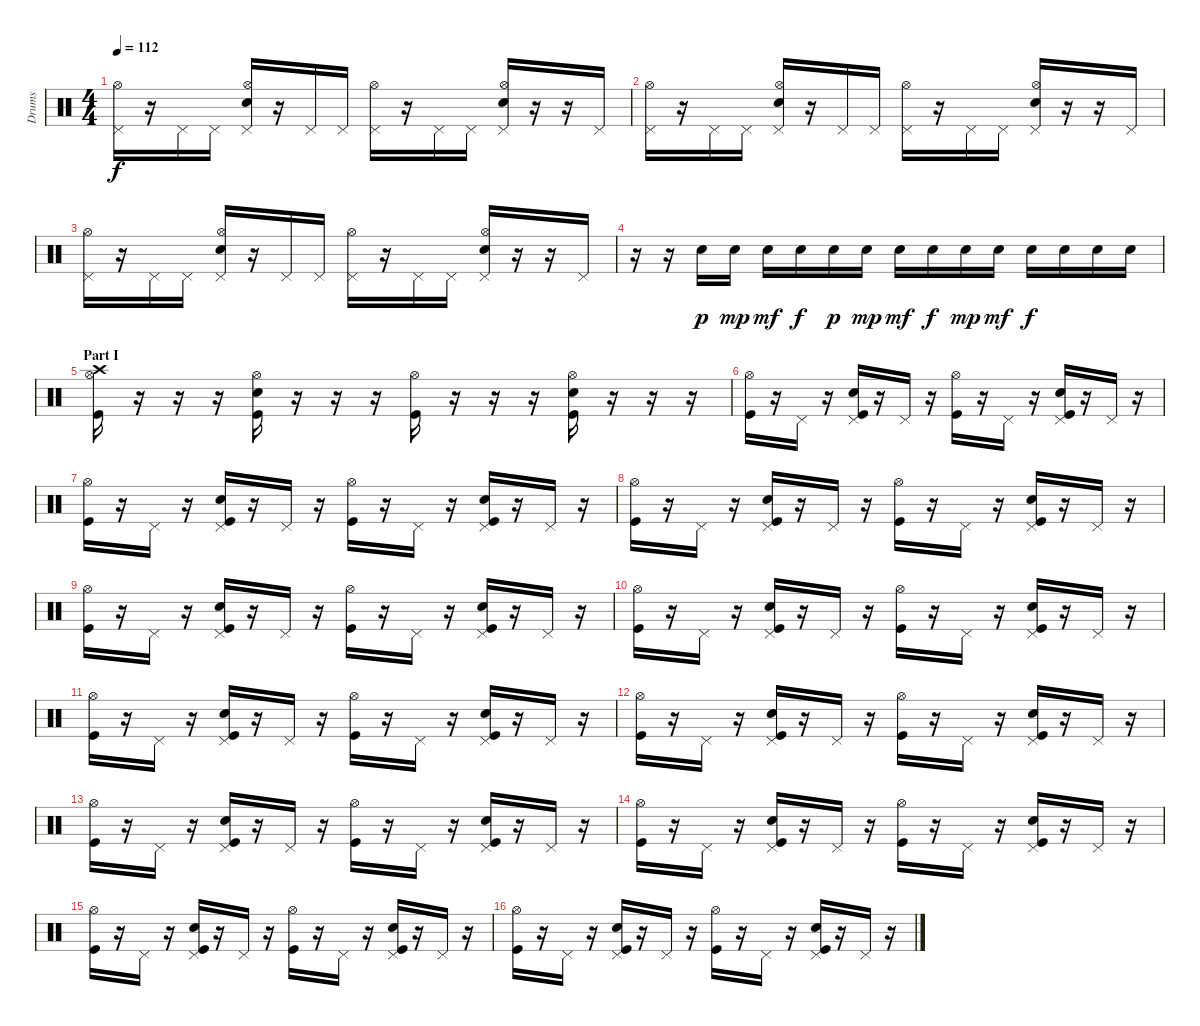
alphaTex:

\track ("Drums" "Drums") {instrument percussion}
\staff {score}
\articulation defaults
\ts (4 4)
\tempo 112
\clef neutral
\ks c
("Pedal Hi-Hat (hit)" "Hi-Hat (open)").16{dy f} r.16 "Pedal Hi-Hat (hit)".16 "Pedal Hi-Hat (hit)".16 ("Pedal Hi-Hat (hit)" "Hi-Hat (open)" "Electric Snare (hit)").16 r.16 "Pedal Hi-Hat (hit)".16 "Pedal Hi-Hat (hit)".16 ("Pedal Hi-Hat (hit)" "Hi-Hat (open)").16 r.16 "Pedal Hi-Hat (hit)".16 "Pedal Hi-Hat (hit)".16 ("Pedal Hi-Hat (hit)" "Hi-Hat (open)" "Electric Snare (hit)").16 r.16 r.16 "Pedal Hi-Hat (hit)".16 |
("Pedal Hi-Hat (hit)" "Hi-Hat (open)").16 r.16 "Pedal Hi-Hat (hit)".16 "Pedal Hi-Hat (hit)".16 ("Pedal Hi-Hat (hit)" "Hi-Hat (open)" "Electric Snare (hit)").16 r.16 "Pedal Hi-Hat (hit)".16 "Pedal Hi-Hat (hit)".16 ("Pedal Hi-Hat (hit)" "Hi-Hat (open)").16 r.16 "Pedal Hi-Hat (hit)".16 "Pedal Hi-Hat (hit)".16 ("Pedal Hi-Hat (hit)" "Hi-Hat (open)" "Electric Snare (hit)").16 r.16 r.16 "Pedal Hi-Hat (hit)".16 |
("Pedal Hi-Hat (hit)" "Hi-Hat (open)").16 r.16 "Pedal Hi-Hat (hit)".16 "Pedal Hi-Hat (hit)".16 ("Pedal Hi-Hat (hit)" "Hi-Hat (open)" "Electric Snare (hit)").16 r.16 "Pedal Hi-Hat (hit)".16 "Pedal Hi-Hat (hit)".16 ("Pedal Hi-Hat (hit)" "Hi-Hat (open)").16 r.16 "Pedal Hi-Hat (hit)".16 "Pedal Hi-Hat (hit)".16 ("Pedal Hi-Hat (hit)" "Hi-Hat (open)" "Electric Snare (hit)").16 r.16 r.16 "Pedal Hi-Hat (hit)".16 |
r.16 r.16 "Electric Snare (hit)".16{dy p} "Electric Snare (hit)".16{dy mp} "Electric Snare (hit)".16{dy mf} "Electric Snare (hit)".16{dy f} "Electric Snare (hit)".16{dy p} "Electric Snare (hit)".16{dy mp} "Electric Snare (hit)".16{dy mf} "Electric Snare (hit)".16{dy f} "Electric Snare (hit)".16{dy mp} "Electric Snare (hit)".16{dy mf} "Electric Snare (hit)".16{dy f} "Electric Snare (hit)".16 "Electric Snare (hit)".16 "Electric Snare (hit)".16 |
\section ("" "Part I")
("Hi-Hat (open)" "Crash high (hit)" "Kick (hit)").16 r.16 r.16 r.16 ("Hi-Hat (open)" "Electric Snare (hit)" "Kick (hit)").16 r.16 r.16 r.16 ("Hi-Hat (open)" "Kick (hit)").16 r.16 r.16 r.16 ("Hi-Hat (open)" "Electric Snare (hit)" "Kick (hit)").16 r.16 r.16 r.16 |
("Hi-Hat (open)" "Kick (hit)").16 r.16 "Pedal Hi-Hat (hit)".16 r.16 ("Pedal Hi-Hat (hit)" "Electric Snare (hit)" "Kick (hit)").16 r.16 "Pedal Hi-Hat (hit)".16 r.16 ("Hi-Hat (open)" "Kick (hit)").16 r.16 "Pedal Hi-Hat (hit)".16 r.16 ("Pedal Hi-Hat (hit)" "Electric Snare (hit)" "Kick (hit)").16 r.16 "Pedal Hi-Hat (hit)".16 r.16 |
("Hi-Hat (open)" "Kick (hit)").16 r.16 "Pedal Hi-Hat (hit)".16 r.16 ("Pedal Hi-Hat (hit)" "Electric Snare (hit)" "Kick (hit)").16 r.16 "Pedal Hi-Hat (hit)".16 r.16 ("Hi-Hat (open)" "Kick (hit)").16 r.16 "Pedal Hi-Hat (hit)".16 r.16 ("Pedal Hi-Hat (hit)" "Electric Snare (hit)" "Kick (hit)").16 r.16 "Pedal Hi-Hat (hit)".16 r.16 |
("Hi-Hat (open)" "Kick (hit)").16 r.16 "Pedal Hi-Hat (hit)".16 r.16 ("Pedal Hi-Hat (hit)" "Electric Snare (hit)" "Kick (hit)").16 r.16 "Pedal Hi-Hat (hit)".16 r.16 ("Hi-Hat (open)" "Kick (hit)").16 r.16 "Pedal Hi-Hat (hit)".16 r.16 ("Pedal Hi-Hat (hit)" "Electric Snare (hit)" "Kick (hit)").16 r.16 "Pedal Hi-Hat (hit)".16 r.16 |
("Hi-Hat (open)" "Kick (hit)").16 r.16 "Pedal Hi-Hat (hit)".16 r.16 ("Pedal Hi-Hat (hit)" "Electric Snare (hit)" "Kick (hit)").16 r.16 "Pedal Hi-Hat (hit)".16 r.16 ("Hi-Hat (open)" "Kick (hit)").16 r.16 "Pedal Hi-Hat (hit)".16 r.16 ("Pedal Hi-Hat (hit)" "Electric Snare (hit)" "Kick (hit)").16 r.16 "Pedal Hi-Hat (hit)".16 r.16 |
("Hi-Hat (open)" "Kick (hit)").16 r.16 "Pedal Hi-Hat (hit)".16 r.16 ("Pedal Hi-Hat (hit)" "Electric Snare (hit)" "Kick (hit)").16 r.16 "Pedal Hi-Hat (hit)".16 r.16 ("Hi-Hat (open)" "Kick (hit)").16 r.16 "Pedal Hi-Hat (hit)".16 r.16 ("Pedal Hi-Hat (hit)" "Electric Snare (hit)" "Kick (hit)").16 r.16 "Pedal Hi-Hat (hit)".16 r.16 |
("Hi-Hat (open)" "Kick (hit)").16 r.16 "Pedal Hi-Hat (hit)".16 r.16 ("Pedal Hi-Hat (hit)" "Electric Snare (hit)" "Kick (hit)").16 r.16 "Pedal Hi-Hat (hit)".16 r.16 ("Hi-Hat (open)" "Kick (hit)").16 r.16 "Pedal Hi-Hat (hit)".16 r.16 ("Pedal Hi-Hat (hit)" "Electric Snare (hit)" "Kick (hit)").16 r.16 "Pedal Hi-Hat (hit)".16 r.16 |
("Hi-Hat (open)" "Kick (hit)").16 r.16 "Pedal Hi-Hat (hit)".16 r.16 ("Pedal Hi-Hat (hit)" "Electric Snare (hit)" "Kick (hit)").16 r.16 "Pedal Hi-Hat (hit)".16 r.16 ("Hi-Hat (open)" "Kick (hit)").16 r.16 "Pedal Hi-Hat (hit)".16 r.16 ("Pedal Hi-Hat (hit)" "Electric Snare (hit)" "Kick (hit)").16 r.16 "Pedal Hi-Hat (hit)".16 r.16 |
("Hi-Hat (open)" "Kick (hit)").16 r.16 "Pedal Hi-Hat (hit)".16 r.16 ("Pedal Hi-Hat (hit)" "Electric Snare (hit)" "Kick (hit)").16 r.16 "Pedal Hi-Hat (hit)".16 r.16 ("Hi-Hat (open)" "Kick (hit)").16 r.16 "Pedal Hi-Hat (hit)".16 r.16 ("Pedal Hi-Hat (hit)" "Electric Snare (hit)" "Kick (hit)").16 r.16 "Pedal Hi-Hat (hit)".16 r.16 |
("Hi-Hat (open)" "Kick (hit)").16 r.16 "Pedal Hi-Hat (hit)".16 r.16 ("Pedal Hi-Hat (hit)" "Electric Snare (hit)" "Kick (hit)").16 r.16 "Pedal Hi-Hat (hit)".16 r.16 ("Hi-Hat (open)" "Kick (hit)").16 r.16 "Pedal Hi-Hat (hit)".16 r.16 ("Pedal Hi-Hat (hit)" "Electric Snare (hit)" "Kick (hit)").16 r.16 "Pedal Hi-Hat (hit)".16 r.16 |
("Hi-Hat (open)" "Kick (hit)").16 r.16 "Pedal Hi-Hat (hit)".16 r.16 ("Pedal Hi-Hat (hit)" "Electric Snare (hit)" "Kick (hit)").16 r.16 "Pedal Hi-Hat (hit)".16 r.16 ("Hi-Hat (open)" "Kick (hit)").16 r.16 "Pedal Hi-Hat (hit)".16 r.16 ("Pedal Hi-Hat (hit)" "Electric Snare (hit)" "Kick (hit)").16 r.16 "Pedal Hi-Hat (hit)".16 r.16 |
("Hi-Hat (open)" "Kick (hit)").16 r.16 "Pedal Hi-Hat (hit)".16 r.16 ("Pedal Hi-Hat (hit)" "Electric Snare (hit)" "Kick (hit)").16 r.16 "Pedal Hi-Hat (hit)".16 r.16 ("Hi-Hat (open)" "Kick (hit)").16 r.16 "Pedal Hi-Hat (hit)".16 r.16 ("Pedal Hi-Hat (hit)" "Electric Snare (hit)" "Kick (hit)").16 r.16 "Pedal Hi-Hat (hit)".16 r.16
